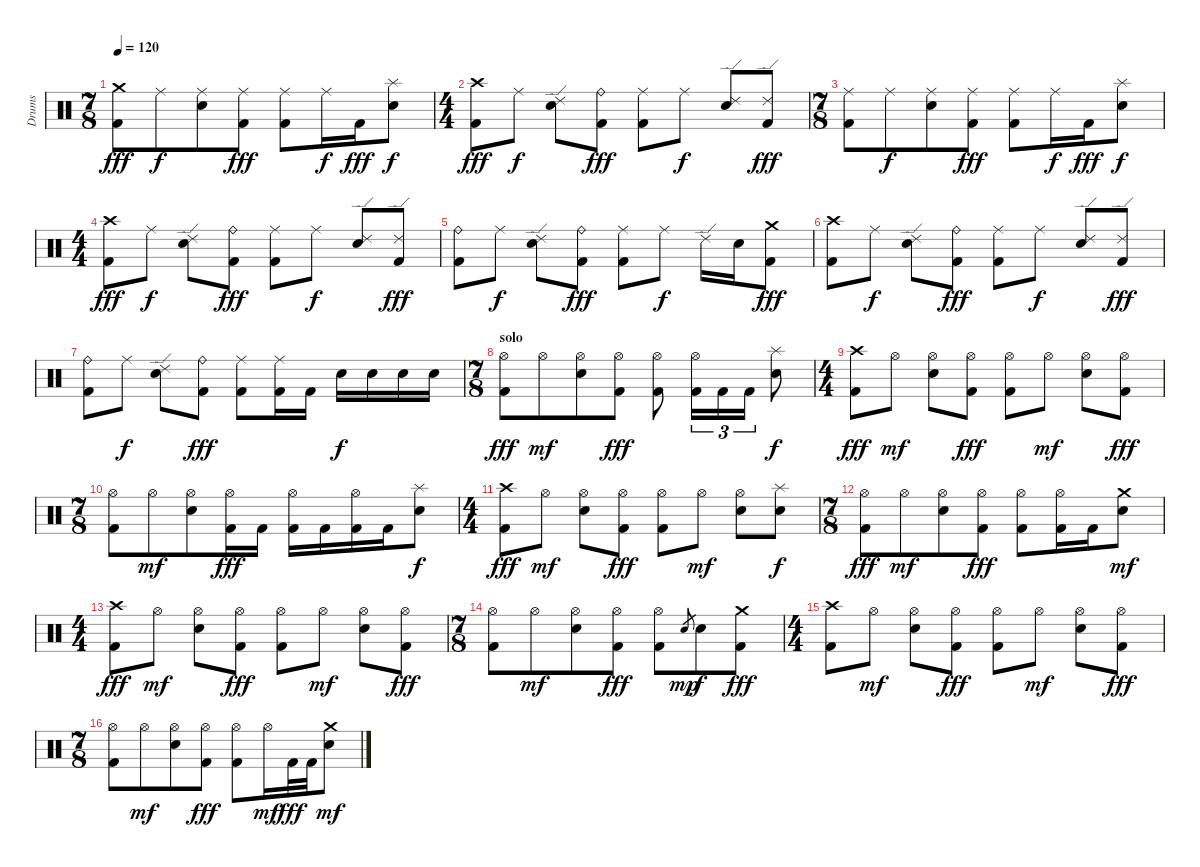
\track ("Drums" "Drums") {instrument percussion}
\staff {score}
\articulation defaults
\ts (7 8)
\tempo 120
\clef neutral
\ks c
("Crash medium (hit)" "Kick (hit) 2").8{dy fff} "Ride (middle)".8{dy f} ("Ride (middle)" "Electric Snare (hit)").8 ("Ride (middle)" "Kick (hit) 2").8{dy fff} ("Ride (middle)" "Kick (hit) 2").8 "Ride (middle)".16{dy f} "Kick (hit) 2".16{dy fff} ("Splash (hit)" "Electric Snare (hit)").8{dy f} |
\ts (4 4)
("Crash high (hit)" "Kick (hit) 2").8{dy fff} "Ride (middle)".8{dy f} ("Ride (edge) 2" "Electric Snare (hit)").8 ("Ride (bell)" "Kick (hit) 2").8{dy fff} ("Ride (middle)" "Kick (hit) 2").8 "Ride (middle)".8{dy f} ("Ride (edge) 2" "Electric Snare (hit)").8 ("Ride (edge) 2" "Kick (hit) 2").8{dy fff} |
\ts (7 8)
("Ride (middle)" "Kick (hit) 2").8 "Ride (middle)".8{dy f} ("Ride (middle)" "Electric Snare (hit)").8 ("Ride (middle)" "Kick (hit) 2").8{dy fff} ("Ride (middle)" "Kick (hit) 2").8 "Ride (middle)".16{dy f} "Kick (hit) 2".16{dy fff} ("Splash (hit)" "Electric Snare (hit)").8{dy f} |
\ts (4 4)
("Crash high (hit)" "Kick (hit) 2").8{dy fff} "Ride (middle)".8{dy f} ("Ride (edge) 2" "Electric Snare (hit)").8 ("Ride (bell)" "Kick (hit) 2").8{dy fff} ("Ride (middle)" "Kick (hit) 2").8 "Ride (middle)".8{dy f} ("Ride (edge) 2" "Electric Snare (hit)").8 ("Ride (edge) 2" "Kick (hit) 2").8{dy fff} |
("Ride (bell)" "Kick (hit) 2").8 "Ride (middle)".8{dy f} ("Ride (edge) 2" "Electric Snare (hit)").8 ("Ride (bell)" "Kick (hit) 2").8{dy fff} ("Ride (middle)" "Kick (hit) 2").8 "Ride (middle)".8{dy f} "Ride (edge) 2".16 "Electric Snare (hit)".16 ("Crash medium (hit)" "Kick (hit) 2").8{dy fff} |
("Crash high (hit)" "Kick (hit) 2").8 "Ride (middle)".8{dy f} ("Ride (edge) 2" "Electric Snare (hit)").8 ("Ride (bell)" "Kick (hit) 2").8{dy fff} ("Ride (middle)" "Kick (hit) 2").8 "Ride (middle)".8{dy f} ("Ride (edge) 2" "Electric Snare (hit)").8 ("Ride (edge) 2" "Kick (hit) 2").8{dy fff} |
("Ride (bell)" "Kick (hit) 2").8 "Ride (middle)".8{dy f} ("Ride (edge) 2" "Electric Snare (hit)").8 ("Ride (bell)" "Kick (hit) 2").8{dy fff} ("Ride (middle)" "Kick (hit) 2").8 ("Ride (middle)" "Kick (hit) 2").16 "Kick (hit) 2".16 "Electric Snare (hit)".16{dy f} "Electric Snare (hit)".16 "Electric Snare (hit)".16 "Electric Snare (hit)".16 |
\ts (7 8)
\section ("" "solo")
("Hi-Hat (open)" "Kick (hit) 2").8{dy fff} "Hi-Hat (open)".8{dy mf} ("Hi-Hat (open)" "Electric Snare (hit)").8 ("Hi-Hat (open)" "Kick (hit) 2").8{dy fff} ("Hi-Hat (open)" "Kick (hit) 2").8 ("Hi-Hat (open)" "Kick (hit) 2").16{tu (3 2)} "Kick (hit) 2".16{tu (3 2)} "Kick (hit) 2".16{tu (3 2)} ("Splash (hit)" "Electric Snare (hit)").8{dy f} |
\ts (4 4)
("Crash high (hit)" "Kick (hit) 2").8{dy fff} "Hi-Hat (open)".8{dy mf} ("Hi-Hat (open)" "Electric Snare (hit)").8 ("Hi-Hat (open)" "Kick (hit) 2").8{dy fff} ("Hi-Hat (open)" "Kick (hit) 2").8 "Hi-Hat (open)".8{dy mf} ("Hi-Hat (open)" "Electric Snare (hit)").8 ("Hi-Hat (open)" "Kick (hit) 2").8{dy fff} |
\ts (7 8)
("Hi-Hat (open)" "Kick (hit) 2").8 "Hi-Hat (open)".8{dy mf} ("Hi-Hat (open)" "Electric Snare (hit)").8 ("Hi-Hat (open)" "Kick (hit) 2").16{dy fff} "Kick (hit) 2".16 ("Hi-Hat (open)" "Kick (hit) 2").16 "Kick (hit) 2".16 ("Hi-Hat (open)" "Kick (hit) 2").16 "Kick (hit) 2".16 ("Splash (hit)" "Electric Snare (hit)").8{dy f} |
\ts (4 4)
("Crash high (hit)" "Kick (hit) 2").8{dy fff} "Hi-Hat (open)".8{dy mf} ("Hi-Hat (open)" "Electric Snare (hit)").8 ("Hi-Hat (open)" "Kick (hit) 2").8{dy fff} ("Hi-Hat (open)" "Kick (hit) 2").8 "Hi-Hat (open)".8{dy mf} ("Hi-Hat (open)" "Electric Snare (hit)").8 ("Splash (hit)" "Electric Snare (hit)").8{dy f} |
\ts (7 8)
("Hi-Hat (open)" "Kick (hit) 2").8{dy fff} "Hi-Hat (open)".8{dy mf} ("Hi-Hat (open)" "Electric Snare (hit)").8 ("Hi-Hat (open)" "Kick (hit) 2").8{dy fff} ("Hi-Hat (open)" "Kick (hit) 2").8 ("Hi-Hat (open)" "Kick (hit) 2").16 "Kick (hit) 2".16 ("Crash medium (hit)" "Electric Snare (hit)").8{dy mf} |
\ts (4 4)
("Crash high (hit)" "Kick (hit) 2").8{dy fff} "Hi-Hat (open)".8{dy mf} ("Hi-Hat (open)" "Electric Snare (hit)").8 ("Hi-Hat (open)" "Kick (hit) 2").8{dy fff} ("Hi-Hat (open)" "Kick (hit) 2").8 "Hi-Hat (open)".8{dy mf} ("Hi-Hat (open)" "Electric Snare (hit)").8 ("Hi-Hat (open)" "Kick (hit) 2").8{dy fff} |
\ts (7 8)
("Hi-Hat (open)" "Kick (hit) 2").8 "Hi-Hat (open)".8{dy mf} ("Hi-Hat (open)" "Electric Snare (hit)").8 ("Hi-Hat (open)" "Kick (hit) 2").8{dy fff} ("Hi-Hat (open)" "Kick (hit) 2").8 "Electric Snare (hit)".8{gr dy mp} "Electric Snare (hit)".8{dy f} ("Crash medium (hit)" "Kick (hit) 2").8{dy fff} |
\ts (4 4)
("Crash high (hit)" "Kick (hit) 2").8 "Hi-Hat (open)".8{dy mf} ("Hi-Hat (open)" "Electric Snare (hit)").8 ("Hi-Hat (open)" "Kick (hit) 2").8{dy fff} ("Hi-Hat (open)" "Kick (hit) 2").8 "Hi-Hat (open)".8{dy mf} ("Hi-Hat (open)" "Electric Snare (hit)").8 ("Hi-Hat (open)" "Kick (hit) 2").8{dy fff} |
\ts (7 8)
("Hi-Hat (open)" "Kick (hit) 2").8 "Hi-Hat (open)".8{dy mf} ("Hi-Hat (open)" "Electric Snare (hit)").8 ("Hi-Hat (open)" "Kick (hit) 2").8{dy fff} ("Hi-Hat (open)" "Kick (hit) 2").8 "Hi-Hat (open)".16{dy mf} "Kick (hit) 2".32{dy fff} "Kick (hit) 2".32 ("Crash medium (hit)" "Electric Snare (hit)").8{dy mf}
